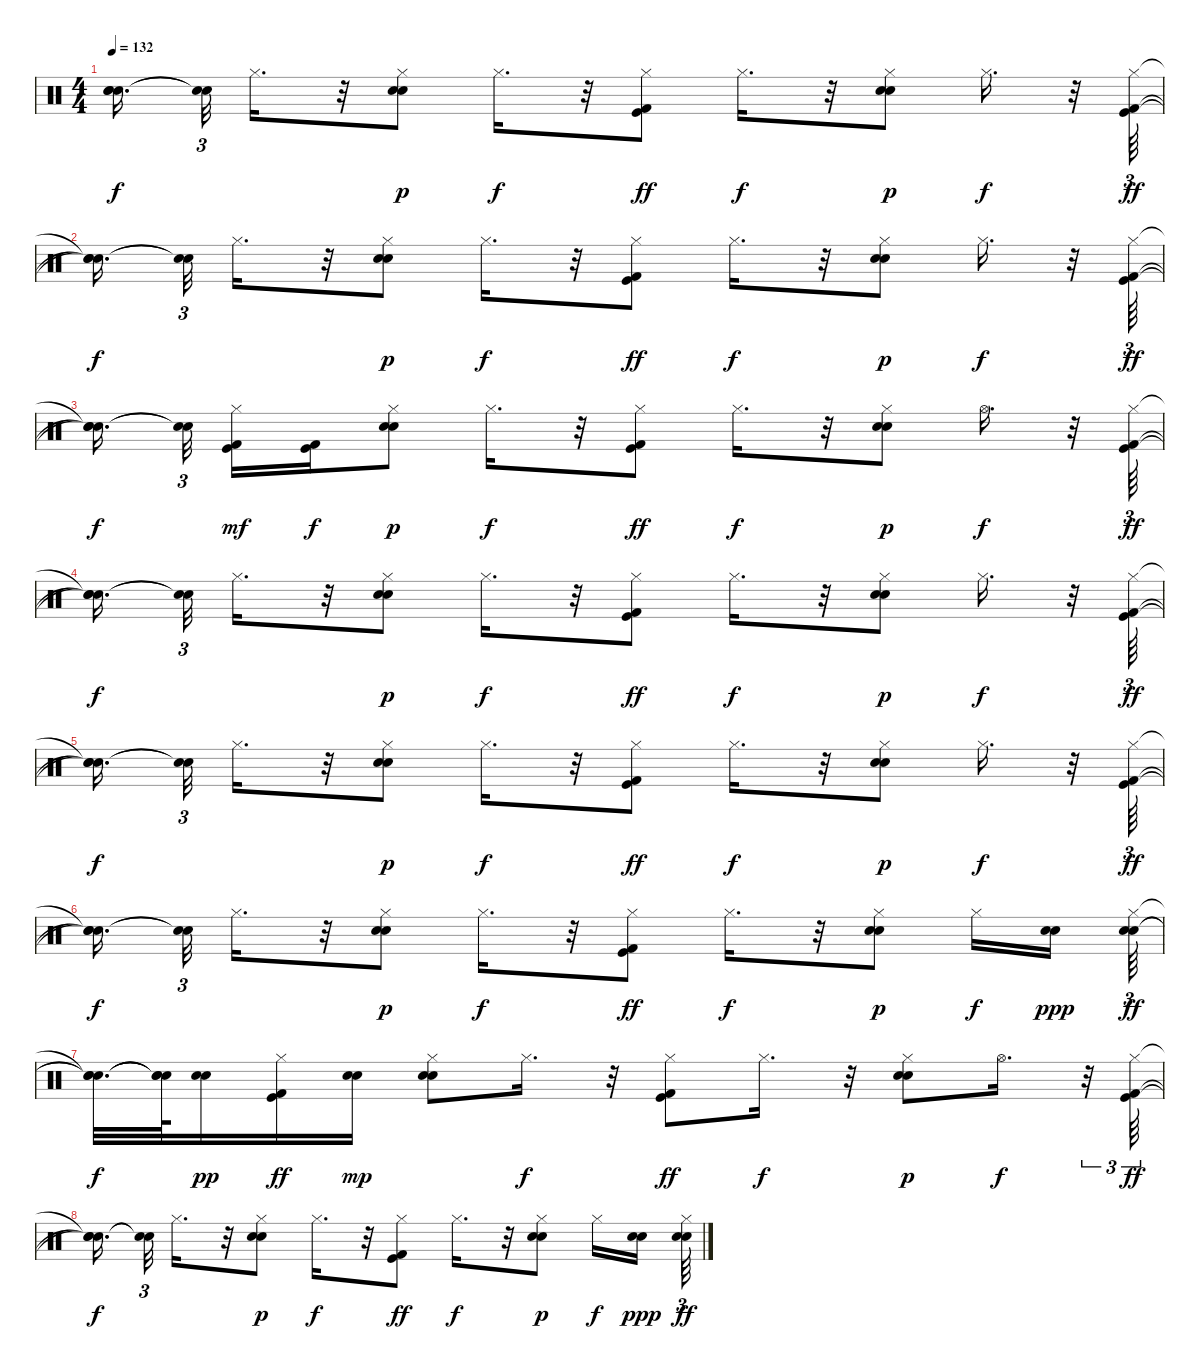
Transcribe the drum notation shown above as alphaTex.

\track "" {instrument percussion}
\staff {score}
\articulation defaults
\ts (4 4)
\tempo 132
\clef neutral
\ks c
("Snare (hit)"{t} "Snare (hit)"{t} "Snare (hit)"{t}).16{d dy f beam splitsecondary} ("Snare (hit)"{t} "Snare (hit)"{t}).32{tu (3 2)} "Hi-Hat (closed)".16{d} r.32 ("Electric Snare (hit)" "Snare (hit) 2" "Hi-Hat (closed)").8{dy p} "Hi-Hat (closed)".16{d dy f} r.32 ("Kick (hit) 2" "Kick (hit)" "Hi-Hat (closed)").8{dy ff} "Hi-Hat (closed)".16{d dy f} r.32 ("Electric Snare (hit)" "Snare (hit) 2" "Hi-Hat (closed)").8{dy p} "Hi-Hat (closed)".16{d dy f} r.32 ("Kick (hit) 2" "Kick (hit)" "Hi-Hat (closed)").64{tu (3 2) dy ff} |
("Snare (hit)"{t} "Snare (hit)"{t} "Snare (hit)"{t}).16{d dy f beam splitsecondary} ("Snare (hit)"{t} "Snare (hit)"{t}).32{tu (3 2)} "Hi-Hat (closed)".16{d} r.32 ("Electric Snare (hit)" "Snare (hit) 2" "Hi-Hat (closed)").8{dy p} "Hi-Hat (closed)".16{d dy f} r.32 ("Kick (hit) 2" "Kick (hit)" "Hi-Hat (closed)").8{dy ff} "Hi-Hat (closed)".16{d dy f} r.32 ("Electric Snare (hit)" "Snare (hit) 2" "Hi-Hat (closed)").8{dy p} "Hi-Hat (closed)".16{d dy f} r.32 ("Kick (hit) 2" "Kick (hit)" "Hi-Hat (closed)").64{tu (3 2) dy ff} |
("Snare (hit)"{t} "Snare (hit)"{t} "Snare (hit)"{t}).16{d dy f beam splitsecondary} ("Snare (hit)"{t} "Snare (hit)"{t}).32{tu (3 2) beam splitsecondary} ("Kick (hit) 2" "Kick (hit)" "Hi-Hat (closed)").16{dy mf} ("Kick (hit)" "Kick (hit) 2").16{dy f} ("Electric Snare (hit)" "Snare (hit) 2" "Hi-Hat (closed)").8{dy p} "Hi-Hat (closed)".16{d dy f} r.32 ("Kick (hit) 2" "Kick (hit)" "Hi-Hat (closed)").8{dy ff} "Hi-Hat (closed)".16{d dy f} r.32 ("Electric Snare (hit)" "Snare (hit) 2" "Hi-Hat (closed)").8{dy p} "Hi-Hat (open)".16{d dy f} r.32 ("Kick (hit) 2" "Kick (hit)" "Hi-Hat (closed)").64{tu (3 2) dy ff} |
("Snare (hit)"{t} "Snare (hit)"{t} "Snare (hit)"{t}).16{d dy f beam splitsecondary} ("Snare (hit)"{t} "Snare (hit)"{t}).32{tu (3 2)} "Hi-Hat (closed)".16{d} r.32 ("Electric Snare (hit)" "Snare (hit) 2" "Hi-Hat (closed)").8{dy p} "Hi-Hat (closed)".16{d dy f} r.32 ("Kick (hit) 2" "Kick (hit)" "Hi-Hat (closed)").8{dy ff} "Hi-Hat (closed)".16{d dy f} r.32 ("Electric Snare (hit)" "Snare (hit) 2" "Hi-Hat (closed)").8{dy p} "Hi-Hat (closed)".16{d dy f} r.32 ("Kick (hit) 2" "Kick (hit)" "Hi-Hat (closed)").64{tu (3 2) dy ff} |
("Snare (hit)"{t} "Snare (hit)"{t} "Snare (hit)"{t}).16{d dy f beam splitsecondary} ("Snare (hit)"{t} "Snare (hit)"{t}).32{tu (3 2)} "Hi-Hat (closed)".16{d} r.32 ("Electric Snare (hit)" "Snare (hit) 2" "Hi-Hat (closed)").8{dy p} "Hi-Hat (closed)".16{d dy f} r.32 ("Kick (hit) 2" "Kick (hit)" "Hi-Hat (closed)").8{dy ff} "Hi-Hat (closed)".16{d dy f} r.32 ("Electric Snare (hit)" "Snare (hit) 2" "Hi-Hat (closed)").8{dy p} "Hi-Hat (closed)".16{d dy f} r.32 ("Kick (hit) 2" "Kick (hit)" "Hi-Hat (closed)").64{tu (3 2) dy ff} |
("Snare (hit)"{t} "Snare (hit)"{t} "Snare (hit)"{t}).16{d dy f beam splitsecondary} ("Snare (hit)"{t} "Snare (hit)"{t}).32{tu (3 2)} "Hi-Hat (closed)".16{d} r.32 ("Electric Snare (hit)" "Snare (hit) 2" "Hi-Hat (closed)").8{dy p} "Hi-Hat (closed)".16{d dy f} r.32 ("Kick (hit) 2" "Kick (hit)" "Hi-Hat (closed)").8{dy ff} "Hi-Hat (closed)".16{d dy f} r.32 ("Electric Snare (hit)" "Snare (hit) 2" "Hi-Hat (closed)").8{dy p} "Hi-Hat (closed)".16{dy f} ("Electric Snare (hit)" "Snare (hit) 2").16{dy ppp beam splitsecondary} ("Snare (hit) 2" "Electric Snare (hit)" "Hi-Hat (closed)").64{tu (3 2) dy ff} |
("Snare (hit)"{t} "Snare (hit)"{t} "Snare (hit)"{t}).32{d dy f} ("Snare (hit)"{t} "Snare (hit)"{t} "Snare (hit)"{t}).64 ("Electric Snare (hit)" "Snare (hit) 2").16{dy pp} ("Kick (hit) 2" "Kick (hit)" "Hi-Hat (closed)").16{dy ff} ("Snare (hit) 2" "Electric Snare (hit)").16{dy mp} ("Electric Snare (hit)" "Snare (hit) 2" "Hi-Hat (closed)").8 "Hi-Hat (closed)".16{d dy f} r.32 ("Kick (hit) 2" "Kick (hit)" "Hi-Hat (closed)").8{dy ff} "Hi-Hat (closed)".16{d dy f} r.32 ("Electric Snare (hit)" "Snare (hit) 2" "Hi-Hat (closed)").8{dy p} "Hi-Hat (open)".16{d dy f} r.32{tu (3 2)} ("Kick (hit) 2" "Kick (hit)" "Hi-Hat (closed)").64{tu (3 2) dy ff} |
("Snare (hit)"{t} "Snare (hit)"{t} "Snare (hit)"{t}).16{d dy f beam splitsecondary} ("Snare (hit)"{t} "Snare (hit)"{t}).32{tu (3 2)} "Hi-Hat (closed)".16{d} r.32 ("Electric Snare (hit)" "Snare (hit) 2" "Hi-Hat (closed)").8{dy p} "Hi-Hat (closed)".16{d dy f} r.32 ("Kick (hit) 2" "Kick (hit)" "Hi-Hat (closed)").8{dy ff} "Hi-Hat (closed)".16{d dy f} r.32 ("Electric Snare (hit)" "Snare (hit) 2" "Hi-Hat (closed)").8{dy p} "Hi-Hat (closed)".16{dy f} ("Electric Snare (hit)" "Snare (hit) 2").16{dy ppp beam splitsecondary} ("Snare (hit) 2" "Electric Snare (hit)" "Hi-Hat (closed)").64{tu (3 2) dy ff}
